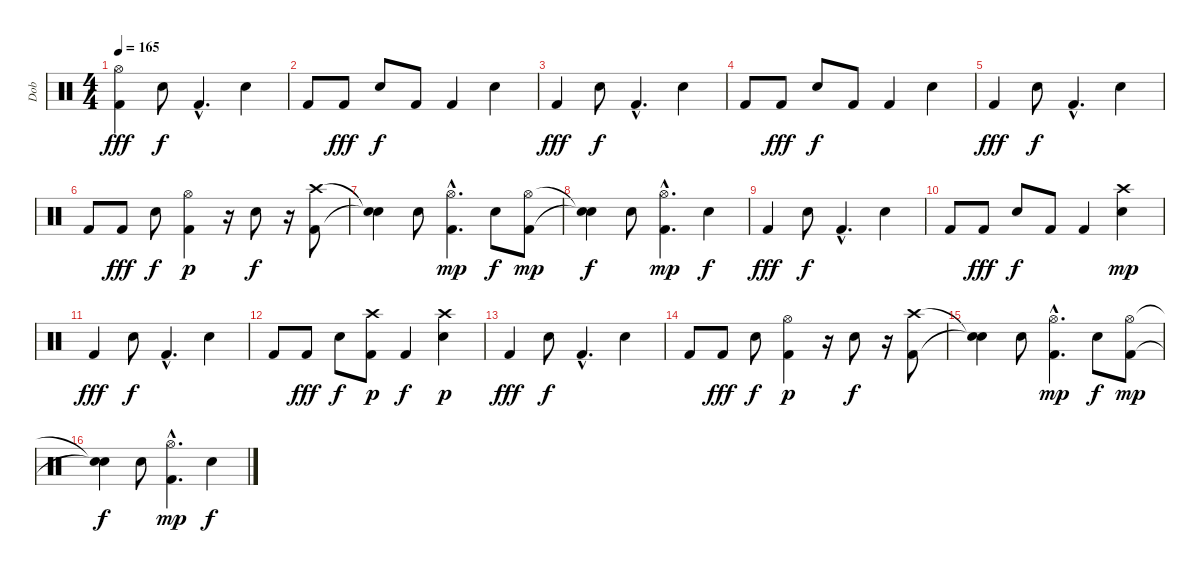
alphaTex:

\track ("Dob" "Dob") {instrument percussion}
\staff {score}
\articulation defaults
\ts (4 4)
\tempo 165
\clef neutral
\ks c
("Kick (hit) 2" "Hi-Hat (open)").4{dy fff} "Electric Snare (hit)".8{dy f} "Kick (hit) 2"{hac}.4{d} "Electric Snare (hit)".4 |
"Kick (hit) 2".8 "Kick (hit) 2".8{dy fff} "Electric Snare (hit)".8{dy f} "Kick (hit) 2".8 "Kick (hit) 2".4 "Electric Snare (hit)".4 |
"Kick (hit) 2".4{dy fff} "Electric Snare (hit)".8{dy f} "Kick (hit) 2"{hac}.4{d} "Electric Snare (hit)".4 |
"Kick (hit) 2".8 "Kick (hit) 2".8{dy fff} "Electric Snare (hit)".8{dy f} "Kick (hit) 2".8 "Kick (hit) 2".4 "Electric Snare (hit)".4 |
"Kick (hit) 2".4{dy fff} "Electric Snare (hit)".8{dy f} "Kick (hit) 2"{hac}.4{d} "Electric Snare (hit)".4 |
"Kick (hit) 2".8 "Kick (hit) 2".8{dy fff} "Electric Snare (hit)".8{dy f} ("Kick (hit) 2" "Hi-Hat (open)").4{dy p} r.16 "Electric Snare (hit)"{tr (40 16)}.8{dy f} r.16 ("Kick (hit) 2" "Crash high (hit)").8 |
("Snare (hit)"{t} "Snare (hit)"{t}).4 "Electric Snare (hit)".8 ("Kick (hit) 2"{hac} "Hi-Hat (open)"{hac}).4{d dy mp} "Electric Snare (hit)".8{dy f} ("Kick (hit) 2" "Hi-Hat (open)").8{dy mp} |
("Snare (hit)"{t} "Snare (hit)"{t}).4{dy f} "Electric Snare (hit)".8 ("Kick (hit) 2"{hac} "Hi-Hat (open)"{hac}).4{d dy mp} "Electric Snare (hit)".4{dy f} |
"Kick (hit) 2".4{dy fff} "Electric Snare (hit)".8{dy f} "Kick (hit) 2"{hac}.4{d} "Electric Snare (hit)".4 |
"Kick (hit) 2".8 "Kick (hit) 2".8{dy fff} "Electric Snare (hit)".8{dy f} "Kick (hit) 2".8 "Kick (hit) 2".4 ("Electric Snare (hit)" "Crash high (hit)").4{dy mp} |
"Kick (hit) 2".4{dy fff} "Electric Snare (hit)".8{dy f} "Kick (hit) 2"{hac}.4{d} "Electric Snare (hit)".4 |
"Kick (hit) 2".8 "Kick (hit) 2".8{dy fff} "Electric Snare (hit)".8{dy f} ("Kick (hit) 2" "Crash high (hit)").8{dy p} "Kick (hit) 2".4{dy f} ("Electric Snare (hit)" "Crash high (hit)").4{dy p} |
"Kick (hit) 2".4{dy fff} "Electric Snare (hit)".8{dy f} "Kick (hit) 2"{hac}.4{d} "Electric Snare (hit)".4 |
"Kick (hit) 2".8 "Kick (hit) 2".8{dy fff} "Electric Snare (hit)".8{dy f} ("Kick (hit) 2" "Hi-Hat (open)").4{dy p} r.16 "Electric Snare (hit)"{tr (40 16)}.8{dy f} r.16 ("Kick (hit) 2" "Crash high (hit)").8 |
("Snare (hit)"{t} "Snare (hit)"{t}).4 "Electric Snare (hit)".8 ("Kick (hit) 2"{hac} "Hi-Hat (open)"{hac}).4{d dy mp} "Electric Snare (hit)".8{dy f} ("Kick (hit) 2" "Hi-Hat (open)").8{dy mp} |
("Snare (hit)"{t} "Snare (hit)"{t}).4{dy f} "Electric Snare (hit)".8 ("Kick (hit) 2"{hac} "Hi-Hat (open)"{hac}).4{d dy mp} "Electric Snare (hit)".4{dy f}
